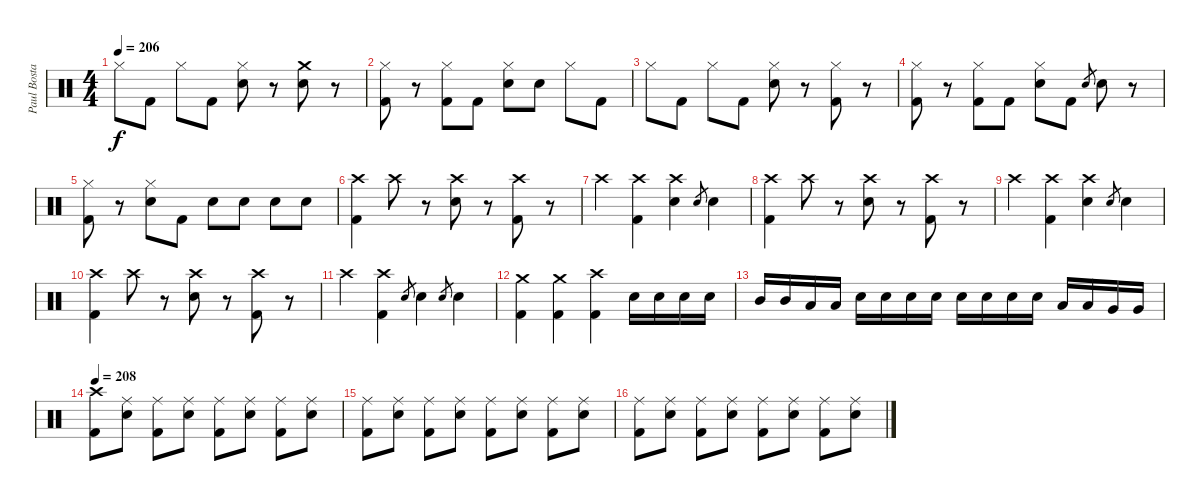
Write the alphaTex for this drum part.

\track ("Paul Bostaph" "Paul Bosta") {instrument percussion}
\staff {score}
\articulation defaults
\ts (4 4)
\tempo 206
\clef neutral
\ks c "Hi-Hat (closed)".8{dy f} "Kick (hit) 2".8 "Hi-Hat (closed)".8 "Kick (hit) 2".8
("Electric Snare (hit)" "Hi-Hat (closed)").8 r.8 ("Electric Snare (hit)" "Crash medium (hit)").8 r.8 |
("Hi-Hat (closed)" "Kick (hit) 2").8 r.8 ("Kick (hit) 2" "Hi-Hat (closed)").8 "Kick (hit) 2".8 ("Electric Snare (hit)" "Hi-Hat (closed)").8 "Electric Snare (hit)".8 "Hi-Hat (closed)".8 "Kick (hit) 2".8 |
"Hi-Hat (closed)".8 "Kick (hit) 2".8 "Hi-Hat (closed)".8 "Kick (hit) 2".8 ("Electric Snare (hit)" "Hi-Hat (closed)").8 r.8 ("Kick (hit) 2" "Hi-Hat (closed)").8 r.8 |
("Hi-Hat (closed)" "Kick (hit) 2").8 r.8 ("Kick (hit) 2" "Hi-Hat (closed)").8 "Kick (hit) 2".8 ("Electric Snare (hit)" "Hi-Hat (closed)").8 "Kick (hit) 2".8 "Electric Snare (hit)".8{gr} "Electric Snare (hit)".8 r.8 |
("Kick (hit) 2" "Hi-Hat (closed)").8 r.8 ("Electric Snare (hit)" "Hi-Hat (closed)").8 "Kick (hit) 2".8 "Electric Snare (hit)".8 "Electric Snare (hit)".8 "Electric Snare (hit)".8 "Electric Snare (hit)".8 |
("Crash high (hit)" "Kick (hit) 2").4 "Crash high (hit)".8 r.8 ("Crash high (hit)" "Electric Snare (hit)").8 r.8 ("Crash high (hit)" "Kick (hit) 2").8 r.8 |
"Crash high (hit)".4 ("Crash high (hit)" "Kick (hit) 2").4 ("Crash high (hit)" "Electric Snare (hit)").4 "Electric Snare (hit)".8{gr} "Electric Snare (hit)".4 |
("Crash high (hit)" "Kick (hit) 2").4 "Crash high (hit)".8 r.8 ("Crash high (hit)" "Electric Snare (hit)").8 r.8 ("Crash high (hit)" "Kick (hit) 2").8 r.8 |
"Crash high (hit)".4 ("Crash high (hit)" "Kick (hit) 2").4 ("Crash high (hit)" "Electric Snare (hit)").4 "Electric Snare (hit)".8{gr} "Electric Snare (hit)".4 |
("Crash high (hit)" "Kick (hit) 2").4 "Crash high (hit)".8 r.8 ("Crash high (hit)" "Electric Snare (hit)").8 r.8 ("Crash high (hit)" "Kick (hit) 2").8 r.8 |
"Crash high (hit)".4 ("Crash high (hit)" "Kick (hit) 2").4 "Electric Snare (hit)".8{gr} "Electric Snare (hit)".4 "Electric Snare (hit)".8{gr} "Electric Snare (hit)".4 |
("Crash medium (hit)" "Kick (hit) 2").4 ("Crash medium (hit)" "Kick (hit) 2").4 ("Crash high (hit)" "Kick (hit) 2").4 "Electric Snare (hit)".16 "Electric Snare (hit)".16 "Electric Snare (hit)".16 "Electric Snare (hit)".16 |
"Mid Tom (hit)".16 "Mid Tom (hit)".16 "Low Tom (hit)".16 "Low Tom (hit)".16 "Electric Snare (hit)".16 "Electric Snare (hit)".16 "Electric Snare (hit)".16 "Electric Snare (hit)".16 "Electric Snare (hit)".16 "Electric Snare (hit)".16 "Electric Snare (hit)".16 "Electric Snare (hit)".16 "Low Tom (hit)".16 "Low Tom (hit)".16 "Very Low Tom (hit)".16 "Very Low Tom (hit)".16 |
\tempo 208
("Crash high (hit)" "Kick (hit) 2").8 ("Ride (middle)" "Electric Snare (hit)").8 ("Ride (middle)" "Kick (hit) 2").8 ("Ride (middle)" "Electric Snare (hit)").8 ("Ride (middle)" "Kick (hit) 2").8 ("Ride (middle)" "Electric Snare (hit)").8 ("Ride (middle)" "Kick (hit) 2").8 ("Ride (middle)" "Electric Snare (hit)").8 |
("Ride (middle)" "Kick (hit) 2").8 ("Ride (middle)" "Electric Snare (hit)").8 ("Ride (middle)" "Kick (hit) 2").8 ("Ride (middle)" "Electric Snare (hit)").8 ("Ride (middle)" "Kick (hit) 2").8 ("Ride (middle)" "Electric Snare (hit)").8 ("Ride (middle)" "Kick (hit) 2").8 ("Ride (middle)" "Electric Snare (hit)").8 |
("Ride (middle)" "Kick (hit) 2").8 ("Ride (middle)" "Electric Snare (hit)").8 ("Ride (middle)" "Kick (hit) 2").8 ("Ride (middle)" "Electric Snare (hit)").8 ("Ride (middle)" "Kick (hit) 2").8 ("Ride (middle)" "Electric Snare (hit)").8 ("Ride (middle)" "Kick (hit) 2").8 ("Ride (middle)" "Electric Snare (hit)").8
